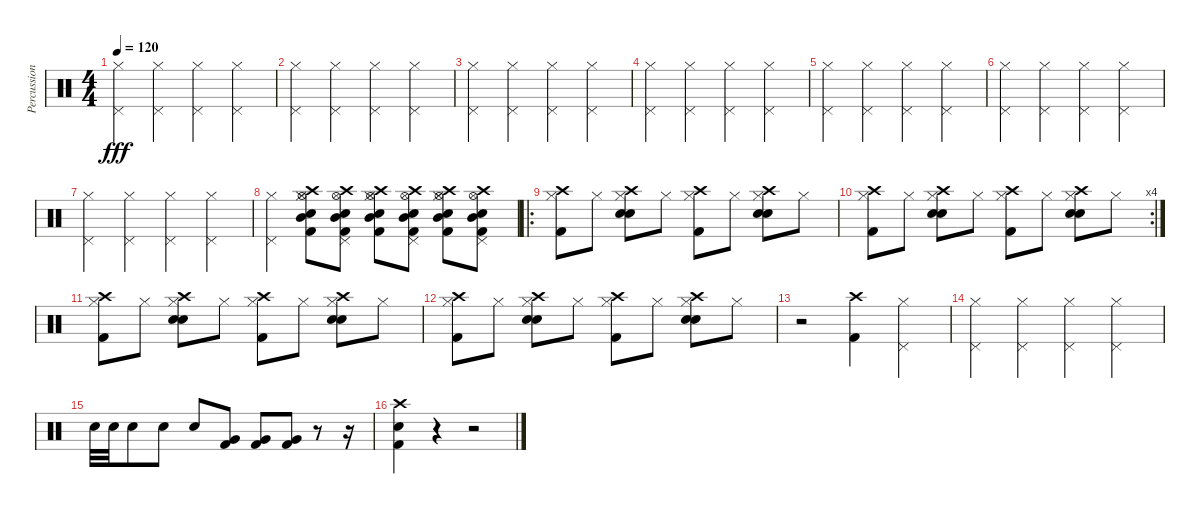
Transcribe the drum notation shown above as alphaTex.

\track ("Percussion" "Percussion") {instrument percussion}
\staff {score}
\articulation defaults
\ts (4 4)
\tempo 120
\clef neutral
\ks c
("Hi-Hat (closed)" "Pedal Hi-Hat (hit)").4{dy fff} ("Hi-Hat (closed)" "Pedal Hi-Hat (hit)").4 ("Hi-Hat (closed)" "Pedal Hi-Hat (hit)").4 ("Hi-Hat (closed)" "Pedal Hi-Hat (hit)").4 |
("Hi-Hat (closed)" "Pedal Hi-Hat (hit)").4 ("Hi-Hat (closed)" "Pedal Hi-Hat (hit)").4 ("Hi-Hat (closed)" "Pedal Hi-Hat (hit)").4 ("Hi-Hat (closed)" "Pedal Hi-Hat (hit)").4 |
("Hi-Hat (closed)" "Pedal Hi-Hat (hit)").4 ("Hi-Hat (closed)" "Pedal Hi-Hat (hit)").4 ("Hi-Hat (closed)" "Pedal Hi-Hat (hit)").4 ("Hi-Hat (closed)" "Pedal Hi-Hat (hit)").4 |
("Hi-Hat (closed)" "Pedal Hi-Hat (hit)").4 ("Hi-Hat (closed)" "Pedal Hi-Hat (hit)").4 ("Hi-Hat (closed)" "Pedal Hi-Hat (hit)").4 ("Hi-Hat (closed)" "Pedal Hi-Hat (hit)").4 |
("Hi-Hat (closed)" "Pedal Hi-Hat (hit)").4 ("Hi-Hat (closed)" "Pedal Hi-Hat (hit)").4 ("Hi-Hat (closed)" "Pedal Hi-Hat (hit)").4 ("Hi-Hat (closed)" "Pedal Hi-Hat (hit)").4 |
("Hi-Hat (closed)" "Pedal Hi-Hat (hit)").4 ("Hi-Hat (closed)" "Pedal Hi-Hat (hit)").4 ("Hi-Hat (closed)" "Pedal Hi-Hat (hit)").4 ("Hi-Hat (closed)" "Pedal Hi-Hat (hit)").4 |
("Hi-Hat (closed)" "Pedal Hi-Hat (hit)").4 ("Hi-Hat (closed)" "Pedal Hi-Hat (hit)").4 ("Hi-Hat (closed)" "Pedal Hi-Hat (hit)").4 ("Hi-Hat (closed)" "Pedal Hi-Hat (hit)").4 |
("Hi-Hat (closed)" "Pedal Hi-Hat (hit)").4 ("Electric Snare (hit)" "Kick (hit) 2" "Crash high (hit)" "Mid Tom (hit)" "Hi-Hat (open)" "Hi-Hat (closed)").8 ("Electric Snare (hit)" "Kick (hit) 2" "Crash high (hit)" "Mid Tom (hit)" "Hi-Hat (open)" "Pedal Hi-Hat (hit)").8 ("Electric Snare (hit)" "Kick (hit) 2" "Crash high (hit)" "Mid Tom (hit)" "Hi-Hat (open)" "Hi-Hat (closed)").8 ("Electric Snare (hit)" "Kick (hit) 2" "Crash high (hit)" "Mid Tom (hit)" "Hi-Hat (open)" "Pedal Hi-Hat (hit)").8 ("Electric Snare (hit)" "Kick (hit) 2" "Crash high (hit)" "Mid Tom (hit)" "Hi-Hat (open)" "Hi-Hat (closed)").8 ("Electric Snare (hit)" "Kick (hit) 2" "Crash high (hit)" "Mid Tom (hit)" "Hi-Hat (open)" "Pedal Hi-Hat (hit)").8 |
\ro
("Crash high (hit)" "Hi-Hat (closed)" "Kick (hit) 2").8 "Hi-Hat (closed)".8 ("Crash high (hit)" "Hi-Hat (closed)" "Electric Snare (hit)" "Electric Snare (hit)").8 "Hi-Hat (closed)".8 ("Crash high (hit)" "Hi-Hat (closed)" "Kick (hit) 2").8 "Hi-Hat (closed)".8 ("Crash high (hit)" "Hi-Hat (closed)" "Electric Snare (hit)" "Electric Snare (hit)").8 "Hi-Hat (closed)".8 |
\rc 4
("Crash high (hit)" "Hi-Hat (closed)" "Kick (hit) 2").8 "Hi-Hat (closed)".8 ("Crash high (hit)" "Hi-Hat (closed)" "Electric Snare (hit)" "Electric Snare (hit)").8 "Hi-Hat (closed)".8 ("Crash high (hit)" "Hi-Hat (closed)" "Kick (hit) 2").8 "Hi-Hat (closed)".8 ("Crash high (hit)" "Hi-Hat (closed)" "Electric Snare (hit)" "Electric Snare (hit)").8 "Hi-Hat (closed)".8 |
("Crash high (hit)" "Hi-Hat (closed)" "Kick (hit) 2").8 "Hi-Hat (closed)".8 ("Crash high (hit)" "Hi-Hat (closed)" "Electric Snare (hit)" "Electric Snare (hit)").8 "Hi-Hat (closed)".8 ("Crash high (hit)" "Hi-Hat (closed)" "Kick (hit) 2").8 "Hi-Hat (closed)".8 ("Crash high (hit)" "Hi-Hat (closed)" "Electric Snare (hit)" "Electric Snare (hit)").8 "Hi-Hat (closed)".8 |
("Crash high (hit)" "Hi-Hat (closed)" "Kick (hit) 2").8 "Hi-Hat (closed)".8 ("Crash high (hit)" "Hi-Hat (closed)" "Electric Snare (hit)" "Electric Snare (hit)").8 "Hi-Hat (closed)".8 ("Crash high (hit)" "Hi-Hat (closed)" "Kick (hit) 2").8 "Hi-Hat (closed)".8 ("Crash high (hit)" "Hi-Hat (closed)" "Electric Snare (hit)" "Electric Snare (hit)").8 "Hi-Hat (closed)".8 |
r.2 ("Crash high (hit)" "Kick (hit) 2").4 ("Hi-Hat (closed)" "Pedal Hi-Hat (hit)").4 |
("Hi-Hat (closed)" "Pedal Hi-Hat (hit)").4 ("Hi-Hat (closed)" "Pedal Hi-Hat (hit)").4 ("Hi-Hat (closed)" "Pedal Hi-Hat (hit)").4 ("Hi-Hat (closed)" "Pedal Hi-Hat (hit)").4 |
"Electric Snare (hit)".32 "Electric Snare (hit)".32 "Electric Snare (hit)".8 "Electric Snare (hit)".8 "Electric Snare (hit)".8 ("Very Low Tom (hit)" "Kick (hit) 2").8 ("Very Low Tom (hit)" "Kick (hit) 2").8 ("Very Low Tom (hit)" "Kick (hit) 2").8 r.8 r.16 |
("Crash high (hit)" "Kick (hit) 2" "Electric Snare (hit)").4 r.4 r.2
